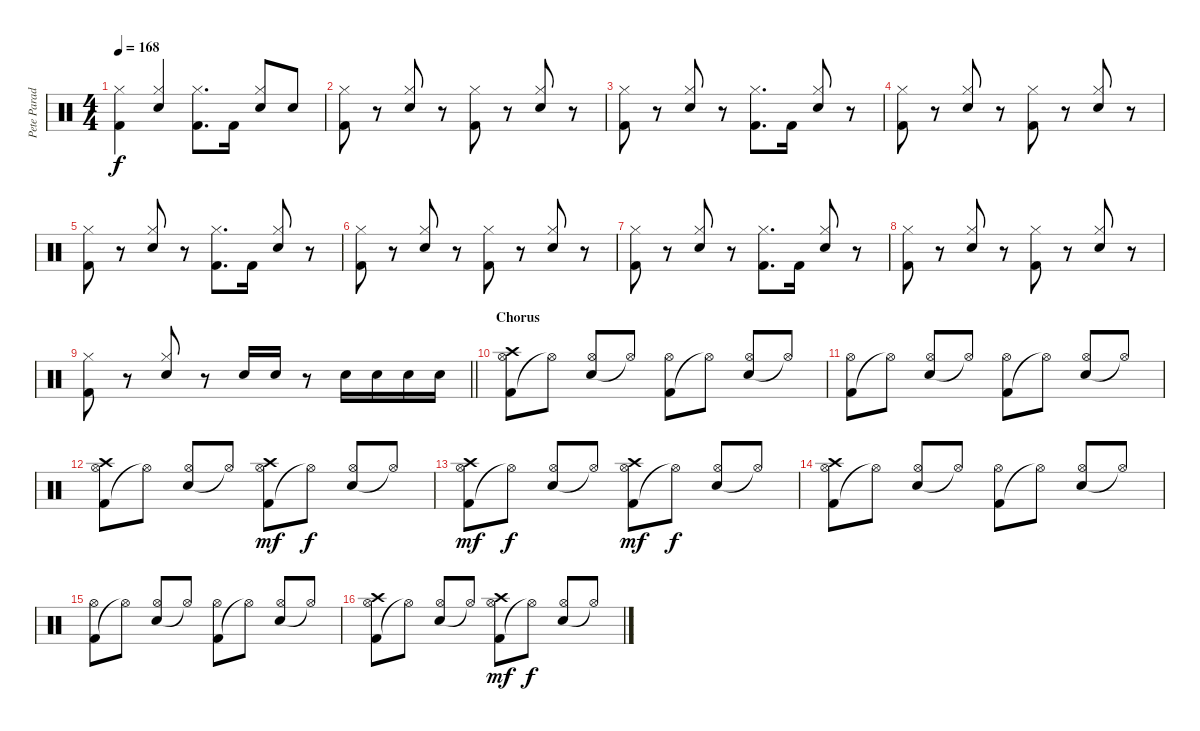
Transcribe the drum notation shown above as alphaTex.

\track ("Pete Parada" "Pete Parad") {instrument percussion}
\staff {score}
\articulation defaults
\ts (4 4)
\tempo 168
\clef neutral
\ks c
("Kick (hit) 2" "Hi-Hat (closed)").4{dy f beam Down} ("Electric Snare (hit)" "Hi-Hat (closed)").4{beam Up} ("Kick (hit) 2" "Hi-Hat (closed)").8{d} "Kick (hit) 2".16 ("Electric Snare (hit)" "Hi-Hat (closed)").8{beam Up} "Electric Snare (hit)".8{beam Up} |
("Kick (hit) 2" "Hi-Hat (closed)").8 r.8 ("Electric Snare (hit)" "Hi-Hat (closed)").8{beam Up} r.8 ("Kick (hit) 2" "Hi-Hat (closed)").8 r.8 ("Electric Snare (hit)" "Hi-Hat (closed)").8{beam Up} r.8 |
("Kick (hit) 2" "Hi-Hat (closed)").8 r.8 ("Electric Snare (hit)" "Hi-Hat (closed)").8{beam Up} r.8 ("Kick (hit) 2" "Hi-Hat (closed)").8{d} "Kick (hit) 2".16 ("Electric Snare (hit)" "Hi-Hat (closed)").8{beam Up} r.8 |
("Kick (hit) 2" "Hi-Hat (closed)").8 r.8 ("Electric Snare (hit)" "Hi-Hat (closed)").8{beam Up} r.8 ("Kick (hit) 2" "Hi-Hat (closed)").8 r.8 ("Electric Snare (hit)" "Hi-Hat (closed)").8{beam Up} r.8 |
("Kick (hit) 2" "Hi-Hat (closed)").8 r.8 ("Electric Snare (hit)" "Hi-Hat (closed)").8{beam Up} r.8 ("Kick (hit) 2" "Hi-Hat (closed)").8{d} "Kick (hit) 2".16 ("Electric Snare (hit)" "Hi-Hat (closed)").8{beam Up} r.8 |
("Kick (hit) 2" "Hi-Hat (closed)").8 r.8 ("Electric Snare (hit)" "Hi-Hat (closed)").8{beam Up} r.8 ("Kick (hit) 2" "Hi-Hat (closed)").8 r.8 ("Electric Snare (hit)" "Hi-Hat (closed)").8{beam Up} r.8 |
("Kick (hit) 2" "Hi-Hat (closed)").8 r.8 ("Electric Snare (hit)" "Hi-Hat (closed)").8{beam Up} r.8 ("Kick (hit) 2" "Hi-Hat (closed)").8{d} "Kick (hit) 2".16 ("Electric Snare (hit)" "Hi-Hat (closed)").8{beam Up} r.8 |
("Kick (hit) 2" "Hi-Hat (closed)").8 r.8 ("Electric Snare (hit)" "Hi-Hat (closed)").8{beam Up} r.8 ("Kick (hit) 2" "Hi-Hat (closed)").8 r.8 ("Electric Snare (hit)" "Hi-Hat (closed)").8{beam Up} r.8 |
\barLineRight lightlight
("Kick (hit) 2" "Hi-Hat (closed)").8 r.8 ("Electric Snare (hit)" "Hi-Hat (closed)").8{beam Up} r.8 "Electric Snare (hit)".16 "Electric Snare (hit)".16{beam Up} r.8 "Electric Snare (hit)".16 "Electric Snare (hit)".16 "Electric Snare (hit)".16 "Electric Snare (hit)".16 |
\section ("" "Chorus")
("Kick (hit) 2" "Hi-Hat (open)" "Crash high (hit)").8 "Hi-Hat (open)"{t}.8 ("Electric Snare (hit)" "Hi-Hat (open)").8{beam Up} "Hi-Hat (open)"{t}.8{beam Up} ("Kick (hit) 2" "Hi-Hat (open)").8 "Hi-Hat (open)"{t}.8 ("Electric Snare (hit)" "Hi-Hat (open)").8{beam Up} "Hi-Hat (open)"{t}.8{beam Up} |
("Kick (hit) 2" "Hi-Hat (open)").8 "Hi-Hat (open)"{t}.8 ("Electric Snare (hit)" "Hi-Hat (open)").8{beam Up} "Hi-Hat (open)"{t}.8{beam Up} ("Kick (hit) 2" "Hi-Hat (open)").8 "Hi-Hat (open)"{t}.8 ("Electric Snare (hit)" "Hi-Hat (open)").8{beam Up} "Hi-Hat (open)"{t}.8{beam Up} |
("Kick (hit) 2" "Hi-Hat (open)" "Crash high (hit)").8 "Hi-Hat (open)"{t}.8 ("Electric Snare (hit)" "Hi-Hat (open)").8{beam Up} "Hi-Hat (open)"{t}.8{beam Up} ("Kick (hit) 2" "Hi-Hat (open)" "Crash high (hit)").8{dy mf} "Hi-Hat (open)"{t}.8{dy f} ("Electric Snare (hit)" "Hi-Hat (open)").8{beam Up} "Hi-Hat (open)"{t}.8{beam Up} |
("Kick (hit) 2" "Hi-Hat (open)" "Crash high (hit)").8{dy mf} "Hi-Hat (open)"{t}.8{dy f} ("Electric Snare (hit)" "Hi-Hat (open)").8{beam Up} "Hi-Hat (open)"{t}.8{beam Up} ("Kick (hit) 2" "Hi-Hat (open)" "Crash high (hit)").8{dy mf} "Hi-Hat (open)"{t}.8{dy f} ("Electric Snare (hit)" "Hi-Hat (open)").8{beam Up} "Hi-Hat (open)"{t}.8{beam Up} |
("Kick (hit) 2" "Hi-Hat (open)" "Crash high (hit)").8 "Hi-Hat (open)"{t}.8 ("Electric Snare (hit)" "Hi-Hat (open)").8{beam Up} "Hi-Hat (open)"{t}.8{beam Up} ("Kick (hit) 2" "Hi-Hat (open)").8 "Hi-Hat (open)"{t}.8 ("Electric Snare (hit)" "Hi-Hat (open)").8{beam Up} "Hi-Hat (open)"{t}.8{beam Up} |
("Kick (hit) 2" "Hi-Hat (open)").8 "Hi-Hat (open)"{t}.8 ("Electric Snare (hit)" "Hi-Hat (open)").8{beam Up} "Hi-Hat (open)"{t}.8{beam Up} ("Kick (hit) 2" "Hi-Hat (open)").8 "Hi-Hat (open)"{t}.8 ("Electric Snare (hit)" "Hi-Hat (open)").8{beam Up} "Hi-Hat (open)"{t}.8{beam Up} |
("Kick (hit) 2" "Hi-Hat (open)" "Crash high (hit)").8 "Hi-Hat (open)"{t}.8 ("Electric Snare (hit)" "Hi-Hat (open)").8{beam Up} "Hi-Hat (open)"{t}.8{beam Up} ("Kick (hit) 2" "Hi-Hat (open)" "Crash high (hit)").8{dy mf} "Hi-Hat (open)"{t}.8{dy f} ("Electric Snare (hit)" "Hi-Hat (open)").8{beam Up} "Hi-Hat (open)"{t}.8{beam Up}
